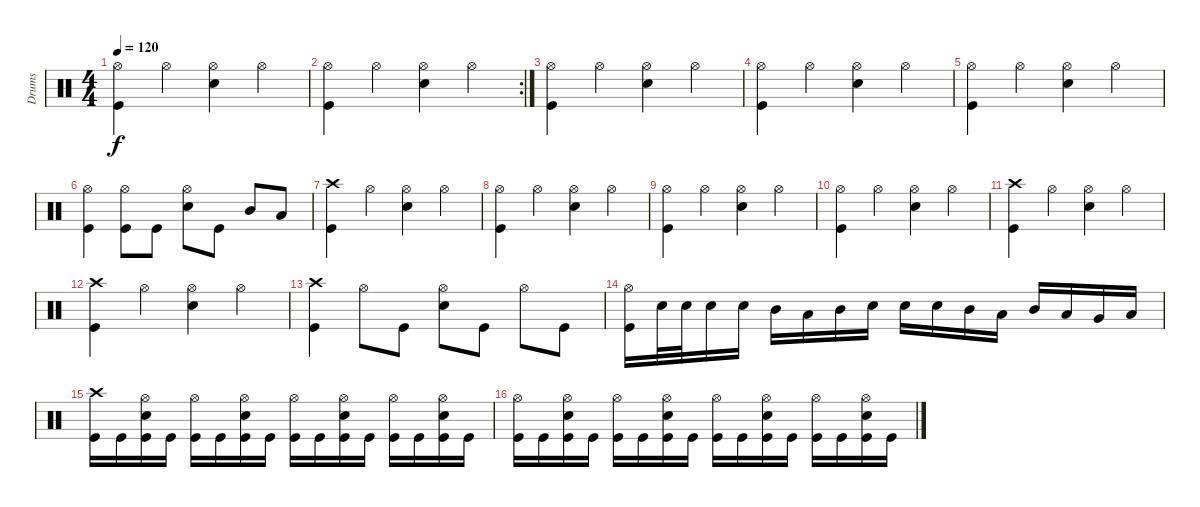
\track ("Drums" "Drums") {instrument percussion}
\staff {score}
\articulation defaults
\ts (4 4)
\tempo 120
\clef neutral
\ks c
("Hi-Hat (open)" "Kick (hit)").4{dy f} "Hi-Hat (open)".4 ("Hi-Hat (open)" "Snare (hit) 2").4 "Hi-Hat (open)".4 |
\rc 2
("Hi-Hat (open)" "Kick (hit)").4 "Hi-Hat (open)".4 ("Hi-Hat (open)" "Snare (hit) 2").4 "Hi-Hat (open)".4 |
("Hi-Hat (open)" "Kick (hit)").4 "Hi-Hat (open)".4 ("Hi-Hat (open)" "Snare (hit) 2").4 "Hi-Hat (open)".4 |
("Hi-Hat (open)" "Kick (hit)").4 "Hi-Hat (open)".4 ("Hi-Hat (open)" "Snare (hit) 2").4 "Hi-Hat (open)".4 |
("Hi-Hat (open)" "Kick (hit)").4 "Hi-Hat (open)".4 ("Hi-Hat (open)" "Snare (hit) 2").4 "Hi-Hat (open)".4 |
("Hi-Hat (open)" "Kick (hit)").4 ("Hi-Hat (open)" "Kick (hit)").8 "Kick (hit)".8 ("Hi-Hat (open)" "Snare (hit) 2").8 "Kick (hit)".8 "Mid Tom (hit)".8 "Low Tom (hit)".8 |
("Crash high (hit)" "Kick (hit)").4 "Hi-Hat (open)".4 ("Hi-Hat (open)" "Snare (hit) 2").4 "Hi-Hat (open)".4 |
("Hi-Hat (open)" "Kick (hit)").4 "Hi-Hat (open)".4 ("Hi-Hat (open)" "Snare (hit) 2").4 "Hi-Hat (open)".4 |
("Hi-Hat (open)" "Kick (hit)").4 "Hi-Hat (open)".4 ("Hi-Hat (open)" "Snare (hit) 2").4 "Hi-Hat (open)".4 |
("Hi-Hat (open)" "Kick (hit)").4 "Hi-Hat (open)".4 ("Hi-Hat (open)" "Snare (hit) 2").4 "Hi-Hat (open)".4 |
("Crash high (hit)" "Kick (hit)").4 "Hi-Hat (open)".4 ("Hi-Hat (open)" "Snare (hit) 2").4 "Hi-Hat (open)".4 |
("Crash high (hit)" "Kick (hit)").4 "Hi-Hat (open)".4 ("Hi-Hat (open)" "Snare (hit) 2").4 "Hi-Hat (open)".4 |
("Crash high (hit)" "Kick (hit)").4 "Hi-Hat (open)".8 "Kick (hit)".8 ("Hi-Hat (open)" "Snare (hit) 2").8 "Kick (hit)".8 "Hi-Hat (open)".8 "Kick (hit)".8 |
("Hi-Hat (open)" "Kick (hit)").16 "Snare (hit) 2".32 "Snare (hit) 2".32 "Snare (hit) 2".16 "Snare (hit) 2".16 "Mid Tom (hit)".16 "Low Tom (hit)".16 "Mid Tom (hit)".16 "Snare (hit) 2".16 "Snare (hit) 2".16 "Snare (hit) 2".16 "Mid Tom (hit)".16 "Low Tom (hit)".16 "Mid Tom (hit)".16 "Low Tom (hit)".16 "Very Low Tom (hit)".16 "Low Tom (hit)".16 |
("Crash high (hit)" "Kick (hit)").16 "Kick (hit)".16 ("Hi-Hat (open)" "Snare (hit) 2" "Kick (hit)").16 "Kick (hit)".16 ("Hi-Hat (open)" "Kick (hit)").16 "Kick (hit)".16 ("Hi-Hat (open)" "Snare (hit) 2" "Kick (hit)").16 "Kick (hit)".16 ("Hi-Hat (open)" "Kick (hit)").16 "Kick (hit)".16 ("Hi-Hat (open)" "Snare (hit) 2" "Kick (hit)").16 "Kick (hit)".16 ("Hi-Hat (open)" "Kick (hit)").16 "Kick (hit)".16 ("Hi-Hat (open)" "Snare (hit) 2" "Kick (hit)").16 "Kick (hit)".16 |
("Hi-Hat (open)" "Kick (hit)").16 "Kick (hit)".16 ("Hi-Hat (open)" "Snare (hit) 2" "Kick (hit)").16 "Kick (hit)".16 ("Hi-Hat (open)" "Kick (hit)").16 "Kick (hit)".16 ("Hi-Hat (open)" "Snare (hit) 2" "Kick (hit)").16 "Kick (hit)".16 ("Hi-Hat (open)" "Kick (hit)").16 "Kick (hit)".16 ("Hi-Hat (open)" "Snare (hit) 2" "Kick (hit)").16 "Kick (hit)".16 ("Hi-Hat (open)" "Kick (hit)").16 "Kick (hit)".16 ("Hi-Hat (open)" "Snare (hit) 2" "Kick (hit)").16 "Kick (hit)".16
